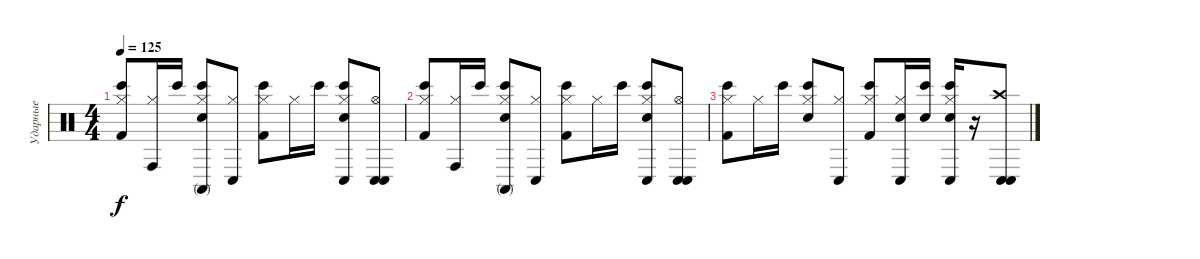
\track ("Ударные" "Ударные") {instrument percussion}
\staff {score}
\articulation defaults
\ts (4 4)
\tempo 125
\clef neutral
\ks c
("Hi-Hat (closed)" "Bongo High (hit)" "Kick (hit) 2").8{dy f} ("Hi-Hat (closed)" "Conga high (hit)").16 "Bongo High (hit)".16 ("Hi-Hat (closed)" "Bongo High (hit)" "Conga high (mute)" "Electric Snare (hit)").8 ("Hi-Hat (closed)" "Conga low (hit)").8 ("Hi-Hat (closed)" "Bongo High (hit)" "Kick (hit) 2").8 "Hi-Hat (closed)".16 "Bongo High (hit)".16 ("Hi-Hat (closed)" "Bongo High (hit)" "Conga low (hit)" "Electric Snare (hit)").8 ("Hi-Hat (open)" "Conga low (hit)" "Conga low (hit)").8 |
("Hi-Hat (closed)" "Bongo High (hit)" "Kick (hit) 2").8 ("Hi-Hat (closed)" "Conga high (hit)").16 "Bongo High (hit)".16 ("Hi-Hat (closed)" "Bongo High (hit)" "Conga high (mute)" "Electric Snare (hit)").8 ("Hi-Hat (closed)" "Conga low (hit)").8 ("Hi-Hat (closed)" "Bongo High (hit)" "Kick (hit) 2").8 "Hi-Hat (closed)".16 "Bongo High (hit)".16 ("Hi-Hat (closed)" "Bongo High (hit)" "Conga low (hit)" "Electric Snare (hit)").8 ("Hi-Hat (open)" "Conga low (hit)" "Conga low (hit)").8 |
("Hi-Hat (closed)" "Bongo High (hit)" "Kick (hit) 2").8 "Hi-Hat (closed)".16 "Bongo High (hit)".16 ("Hi-Hat (closed)" "Bongo High (hit)" "Electric Snare (hit)").8 ("Hi-Hat (closed)" "Conga low (hit)").8 ("Hi-Hat (closed)" "Bongo High (hit)" "Kick (hit) 2").8 ("Hi-Hat (closed)" "Conga low (hit)" "Electric Snare (hit)").16 ("Bongo High (hit)" "Electric Snare (hit)").16 ("Hi-Hat (closed)" "Bongo High (hit)" "Conga low (hit)" "Electric Snare (hit)").16 r.16 ("Crash high (hit)" "Conga low (hit)" "Conga low (hit)").8
